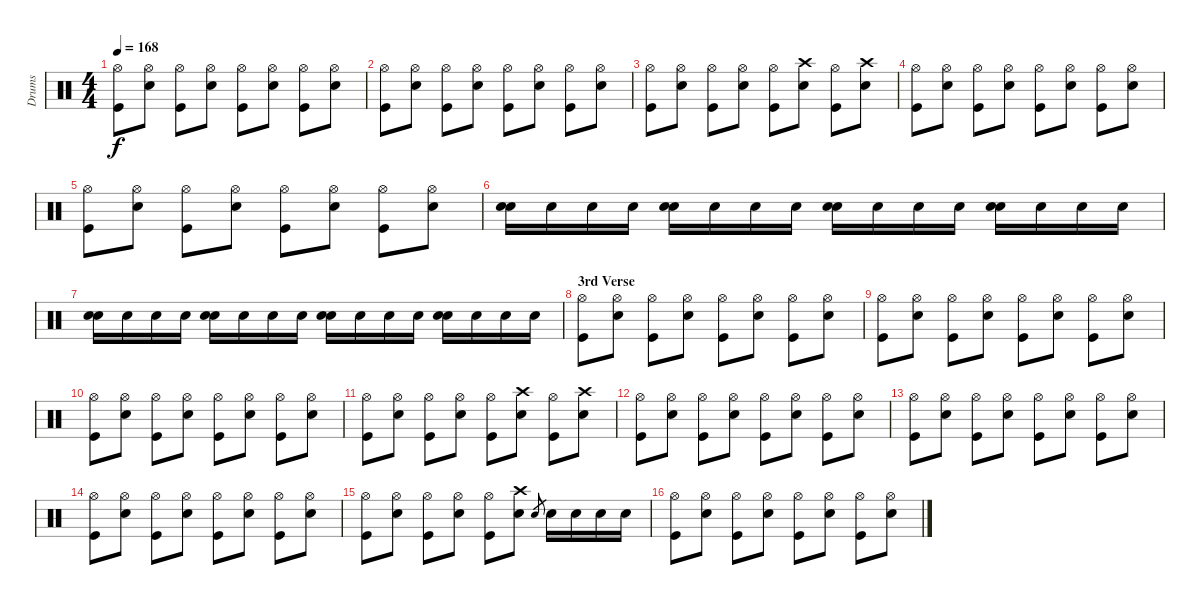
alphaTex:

\track ("Drums" "Drums") {instrument percussion}
\staff {score}
\articulation defaults
\ts (4 4)
\tempo 168
\clef neutral
\ks c
("Hi-Hat (open)" "Kick (hit)").8{dy f} ("Hi-Hat (open)" "Snare (hit) 2").8 ("Hi-Hat (open)" "Kick (hit)").8 ("Hi-Hat (open)" "Snare (hit) 2").8 ("Hi-Hat (open)" "Kick (hit)").8 ("Hi-Hat (open)" "Snare (hit) 2").8 ("Hi-Hat (open)" "Kick (hit)").8 ("Hi-Hat (open)" "Snare (hit) 2").8 |
("Hi-Hat (open)" "Kick (hit)").8 ("Hi-Hat (open)" "Snare (hit) 2").8 ("Hi-Hat (open)" "Kick (hit)").8 ("Hi-Hat (open)" "Snare (hit) 2").8 ("Hi-Hat (open)" "Kick (hit)").8 ("Hi-Hat (open)" "Snare (hit) 2").8 ("Hi-Hat (open)" "Kick (hit)").8 ("Hi-Hat (open)" "Snare (hit) 2").8 |
("Hi-Hat (open)" "Kick (hit)").8 ("Hi-Hat (open)" "Snare (hit) 2").8 ("Hi-Hat (open)" "Kick (hit)").8 ("Hi-Hat (open)" "Snare (hit) 2").8 ("Hi-Hat (open)" "Kick (hit)").8 ("Crash high (hit)" "Snare (hit) 2").8 ("Hi-Hat (open)" "Kick (hit)").8 ("Crash high (hit)" "Snare (hit) 2").8 |
("Hi-Hat (open)" "Kick (hit)").8 ("Hi-Hat (open)" "Snare (hit) 2").8 ("Hi-Hat (open)" "Kick (hit)").8 ("Hi-Hat (open)" "Snare (hit) 2").8 ("Hi-Hat (open)" "Kick (hit)").8 ("Hi-Hat (open)" "Snare (hit) 2").8 ("Hi-Hat (open)" "Kick (hit)").8 ("Hi-Hat (open)" "Snare (hit) 2").8 |
("Hi-Hat (open)" "Kick (hit)").8 ("Hi-Hat (open)" "Snare (hit) 2").8 ("Hi-Hat (open)" "Kick (hit)").8 ("Hi-Hat (open)" "Snare (hit) 2").8 ("Hi-Hat (open)" "Kick (hit)").8 ("Hi-Hat (open)" "Snare (hit) 2").8 ("Hi-Hat (open)" "Kick (hit)").8 ("Hi-Hat (open)" "Snare (hit) 2").8 |
("Snare (hit) 2" "Snare (hit) 2").16 "Snare (hit) 2".16 "Snare (hit) 2".16 "Snare (hit) 2".16 ("Snare (hit) 2" "Snare (hit) 2").16 "Snare (hit) 2".16 "Snare (hit) 2".16 "Snare (hit) 2".16 ("Snare (hit) 2" "Snare (hit) 2").16 "Snare (hit) 2".16 "Snare (hit) 2".16 "Snare (hit) 2".16 ("Snare (hit) 2" "Snare (hit) 2").16 "Snare (hit) 2".16 "Snare (hit) 2".16 "Snare (hit) 2".16 |
("Snare (hit) 2" "Snare (hit) 2").16 "Snare (hit) 2".16 "Snare (hit) 2".16 "Snare (hit) 2".16 ("Snare (hit) 2" "Snare (hit) 2").16 "Snare (hit) 2".16 "Snare (hit) 2".16 "Snare (hit) 2".16 ("Snare (hit) 2" "Snare (hit) 2").16 "Snare (hit) 2".16 "Snare (hit) 2".16 "Snare (hit) 2".16 ("Snare (hit) 2" "Snare (hit) 2").16 "Snare (hit) 2".16 "Snare (hit) 2".16 "Snare (hit) 2".16 |
\section ("" "3rd Verse")
("Hi-Hat (open)" "Kick (hit)").8 ("Hi-Hat (open)" "Snare (hit) 2").8 ("Hi-Hat (open)" "Kick (hit)").8 ("Hi-Hat (open)" "Snare (hit) 2").8 ("Hi-Hat (open)" "Kick (hit)").8 ("Hi-Hat (open)" "Snare (hit) 2").8 ("Hi-Hat (open)" "Kick (hit)").8 ("Hi-Hat (open)" "Snare (hit) 2").8 |
("Hi-Hat (open)" "Kick (hit)").8 ("Hi-Hat (open)" "Snare (hit) 2").8 ("Hi-Hat (open)" "Kick (hit)").8 ("Hi-Hat (open)" "Snare (hit) 2").8 ("Hi-Hat (open)" "Kick (hit)").8 ("Hi-Hat (open)" "Snare (hit) 2").8 ("Hi-Hat (open)" "Kick (hit)").8 ("Hi-Hat (open)" "Snare (hit) 2").8 |
("Hi-Hat (open)" "Kick (hit)").8 ("Hi-Hat (open)" "Snare (hit) 2").8 ("Hi-Hat (open)" "Kick (hit)").8 ("Hi-Hat (open)" "Snare (hit) 2").8 ("Hi-Hat (open)" "Kick (hit)").8 ("Hi-Hat (open)" "Snare (hit) 2").8 ("Hi-Hat (open)" "Kick (hit)").8 ("Hi-Hat (open)" "Snare (hit) 2").8 |
("Hi-Hat (open)" "Kick (hit)").8 ("Hi-Hat (open)" "Snare (hit) 2").8 ("Hi-Hat (open)" "Kick (hit)").8 ("Hi-Hat (open)" "Snare (hit) 2").8 ("Hi-Hat (open)" "Kick (hit)").8 ("Crash high (hit)" "Snare (hit) 2").8 ("Hi-Hat (open)" "Kick (hit)").8 ("Crash high (hit)" "Snare (hit) 2").8 |
("Hi-Hat (open)" "Kick (hit)").8 ("Hi-Hat (open)" "Snare (hit) 2").8 ("Hi-Hat (open)" "Kick (hit)").8 ("Hi-Hat (open)" "Snare (hit) 2").8 ("Hi-Hat (open)" "Kick (hit)").8 ("Hi-Hat (open)" "Snare (hit) 2").8 ("Hi-Hat (open)" "Kick (hit)").8 ("Hi-Hat (open)" "Snare (hit) 2").8 |
("Hi-Hat (open)" "Kick (hit)").8 ("Hi-Hat (open)" "Snare (hit) 2").8 ("Hi-Hat (open)" "Kick (hit)").8 ("Hi-Hat (open)" "Snare (hit) 2").8 ("Hi-Hat (open)" "Kick (hit)").8 ("Hi-Hat (open)" "Snare (hit) 2").8 ("Hi-Hat (open)" "Kick (hit)").8 ("Hi-Hat (open)" "Snare (hit) 2").8 |
("Hi-Hat (open)" "Kick (hit)").8 ("Hi-Hat (open)" "Snare (hit) 2").8 ("Hi-Hat (open)" "Kick (hit)").8 ("Hi-Hat (open)" "Snare (hit) 2").8 ("Hi-Hat (open)" "Kick (hit)").8 ("Hi-Hat (open)" "Snare (hit) 2").8 ("Hi-Hat (open)" "Kick (hit)").8 ("Hi-Hat (open)" "Snare (hit) 2").8 |
("Hi-Hat (open)" "Kick (hit)").8 ("Hi-Hat (open)" "Snare (hit) 2").8 ("Hi-Hat (open)" "Kick (hit)").8 ("Hi-Hat (open)" "Snare (hit) 2").8 ("Hi-Hat (open)" "Kick (hit)").8 ("Crash high (hit)" "Snare (hit) 2").8 "Snare (hit) 2".8{gr} "Snare (hit) 2".16 "Snare (hit) 2".16 "Snare (hit) 2".16 "Snare (hit) 2".16 |
("Hi-Hat (open)" "Kick (hit)").8 ("Hi-Hat (open)" "Snare (hit) 2").8 ("Hi-Hat (open)" "Kick (hit)").8 ("Hi-Hat (open)" "Snare (hit) 2").8 ("Hi-Hat (open)" "Kick (hit)").8 ("Hi-Hat (open)" "Snare (hit) 2").8 ("Hi-Hat (open)" "Kick (hit)").8 ("Hi-Hat (open)" "Snare (hit) 2").8
